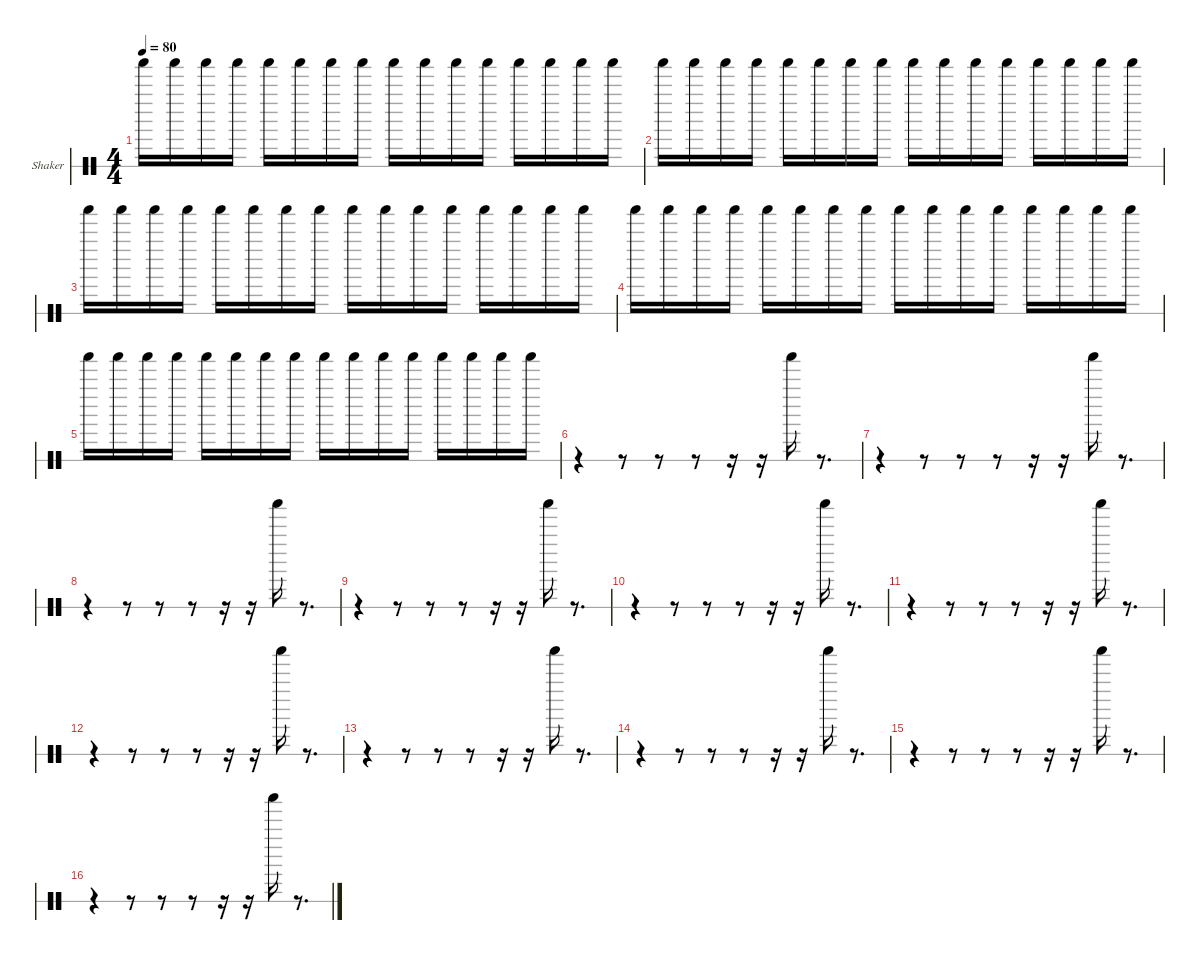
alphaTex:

\hideDynamics
\bracketExtendMode nobrackets
\firstSystemTrackNameOrientation horizontal
\otherSystemsTrackNameOrientation horizontal
\track ("Shaker" "Shaker") {instrument percussion}
\staff {score 1}
\articulation defaults
\ts (4 4)
\tempo 80
\clef neutral
\ks c "Shaker (hit)".16{dy f} "Shaker (hit)".16 "Shaker (hit)".16 "Shaker (hit)".16 "Shaker (hit)".16 "Shaker (hit)".16 "Shaker (hit)".16 "Shaker (hit)".16 "Shaker (hit)".16 "Shaker (hit)".16 "Shaker (hit)".16 "Shaker (hit)".16 "Shaker (hit)".16 "Shaker (hit)".16 "Shaker (hit)".16 "Shaker (hit)".16
|
"Shaker (hit)".16 "Shaker (hit)".16 "Shaker (hit)".16 "Shaker (hit)".16 "Shaker (hit)".16 "Shaker (hit)".16 "Shaker (hit)".16 "Shaker (hit)".16 "Shaker (hit)".16 "Shaker (hit)".16 "Shaker (hit)".16 "Shaker (hit)".16 "Shaker (hit)".16 "Shaker (hit)".16 "Shaker (hit)".16 "Shaker (hit)".16 |
"Shaker (hit)".16 "Shaker (hit)".16 "Shaker (hit)".16 "Shaker (hit)".16 "Shaker (hit)".16 "Shaker (hit)".16 "Shaker (hit)".16 "Shaker (hit)".16 "Shaker (hit)".16 "Shaker (hit)".16 "Shaker (hit)".16 "Shaker (hit)".16 "Shaker (hit)".16 "Shaker (hit)".16 "Shaker (hit)".16 "Shaker (hit)".16 |
"Shaker (hit)".16 "Shaker (hit)".16 "Shaker (hit)".16 "Shaker (hit)".16 "Shaker (hit)".16 "Shaker (hit)".16 "Shaker (hit)".16 "Shaker (hit)".16 "Shaker (hit)".16 "Shaker (hit)".16 "Shaker (hit)".16 "Shaker (hit)".16 "Shaker (hit)".16 "Shaker (hit)".16 "Shaker (hit)".16 "Shaker (hit)".16 |
"Shaker (hit)".16 "Shaker (hit)".16 "Shaker (hit)".16 "Shaker (hit)".16 "Shaker (hit)".16 "Shaker (hit)".16 "Shaker (hit)".16 "Shaker (hit)".16 "Shaker (hit)".16 "Shaker (hit)".16 "Shaker (hit)".16 "Shaker (hit)".16 "Shaker (hit)".16 "Shaker (hit)".16 "Shaker (hit)".16 "Shaker (hit)".16 |
r.4 r.8 r.8 r.8 r.16 r.16 "Shaker (hit)".16 r.8{d} |
r.4 r.8 r.8 r.8 r.16 r.16 "Shaker (hit)".16 r.8{d} |
r.4 r.8 r.8 r.8 r.16 r.16 "Shaker (hit)".16 r.8{d} |
r.4 r.8 r.8 r.8 r.16 r.16 "Shaker (hit)".16 r.8{d} |
r.4 r.8 r.8 r.8 r.16 r.16 "Shaker (hit)".16 r.8{d} |
r.4 r.8 r.8 r.8 r.16 r.16 "Shaker (hit)".16 r.8{d} |
r.4 r.8 r.8 r.8 r.16 r.16 "Shaker (hit)".16 r.8{d} |
r.4 r.8 r.8 r.8 r.16 r.16 "Shaker (hit)".16 r.8{d} |
r.4 r.8 r.8 r.8 r.16 r.16 "Shaker (hit)".16 r.8{d} |
r.4 r.8 r.8 r.8 r.16 r.16 "Shaker (hit)".16 r.8{d} |
r.4 r.8 r.8 r.8 r.16 r.16 "Shaker (hit)".16 r.8{d}
